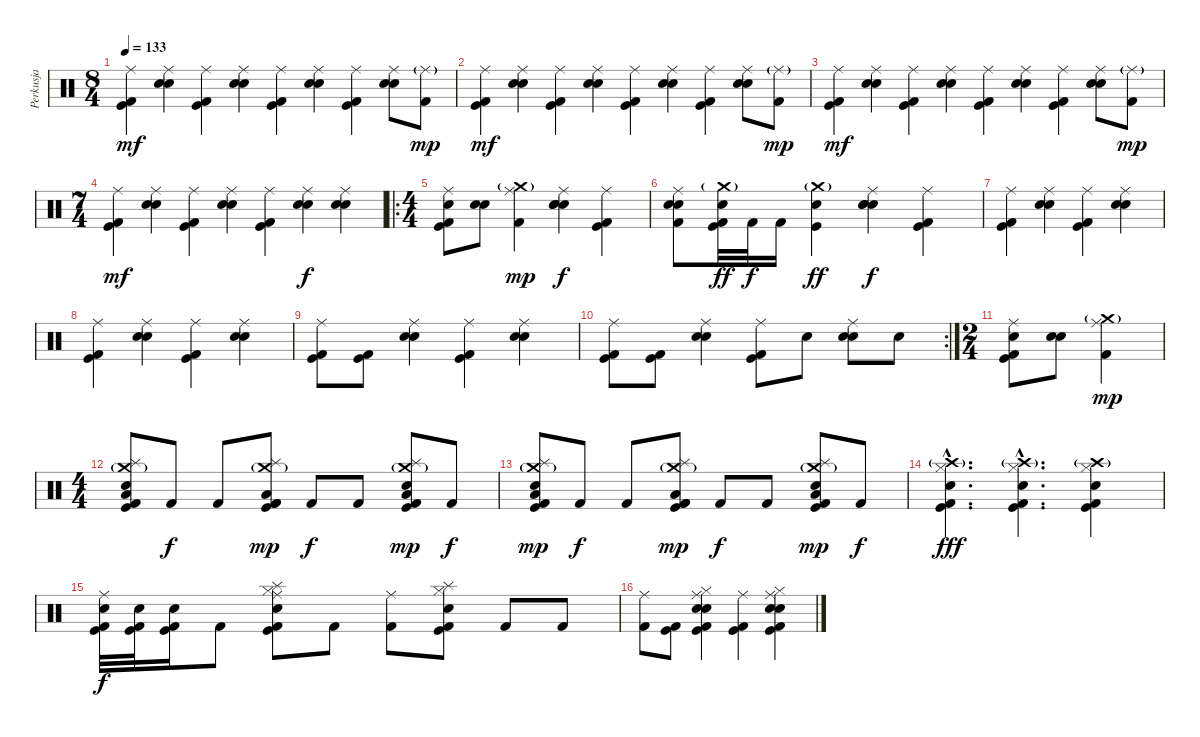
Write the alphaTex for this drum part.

\track ("Perkusja" "Perkusja") {instrument percussion}
\staff {score}
\articulation defaults
\ts (8 4)
\tempo 133
\clef neutral
\ks c
("Ride (middle)" "Kick (hit)" "Kick (hit) 2").4{dy mf} ("Ride (middle)" "Snare (hit) 2" "Electric Snare (hit)").4 ("Ride (middle)" "Kick (hit)" "Kick (hit) 2").4 ("Ride (middle)" "Snare (hit) 2" "Electric Snare (hit)").4 ("Ride (middle)" "Kick (hit)" "Kick (hit) 2").4 ("Ride (middle)" "Snare (hit) 2" "Electric Snare (hit)").4 ("Ride (middle)" "Kick (hit)" "Kick (hit) 2").4 ("Ride (middle)" "Snare (hit) 2" "Electric Snare (hit)").8 ("Ride (middle)"{g} "Kick (hit) 2").8{dy mp} |
("Ride (middle)" "Kick (hit)" "Kick (hit) 2").4{dy mf} ("Ride (middle)" "Snare (hit) 2" "Electric Snare (hit)").4 ("Ride (middle)" "Kick (hit)" "Kick (hit) 2").4 ("Ride (middle)" "Snare (hit) 2" "Electric Snare (hit)").4 ("Ride (middle)" "Kick (hit)" "Kick (hit) 2").4 ("Ride (middle)" "Snare (hit) 2" "Electric Snare (hit)").4 ("Ride (middle)" "Kick (hit)" "Kick (hit) 2").4 ("Ride (middle)" "Snare (hit) 2" "Electric Snare (hit)").8 ("Ride (middle)"{g} "Kick (hit) 2").8{dy mp} |
("Ride (middle)" "Kick (hit)" "Kick (hit) 2").4{dy mf} ("Ride (middle)" "Snare (hit) 2" "Electric Snare (hit)").4 ("Ride (middle)" "Kick (hit)" "Kick (hit) 2").4 ("Ride (middle)" "Snare (hit) 2" "Electric Snare (hit)").4 ("Ride (middle)" "Kick (hit)" "Kick (hit) 2").4 ("Ride (middle)" "Snare (hit) 2" "Electric Snare (hit)").4 ("Ride (middle)" "Kick (hit)" "Kick (hit) 2").4 ("Ride (middle)" "Snare (hit) 2" "Electric Snare (hit)").8 ("Ride (middle)"{g} "Kick (hit) 2").8{dy mp} |
\ts (7 4)
("Ride (middle)" "Kick (hit)" "Kick (hit) 2").4{dy mf} ("Ride (middle)" "Snare (hit) 2" "Electric Snare (hit)").4 ("Ride (middle)" "Kick (hit)" "Kick (hit) 2").4 ("Ride (middle)" "Snare (hit) 2" "Electric Snare (hit)").4 ("Ride (middle)" "Kick (hit)" "Kick (hit) 2").4 ("Ride (middle)" "Snare (hit) 2" "Electric Snare (hit)").4{dy f} ("Ride (middle)" "Snare (hit) 2" "Electric Snare (hit)").4 |
\ro
\ts (4 4)
("Ride (middle)" "Electric Snare (hit)" "Kick (hit) 2" "Kick (hit)").8 ("Snare (hit) 2" "Electric Snare (hit)").8 ("Ride (middle)" "Crash medium (hit)"{g} "Kick (hit) 2").4{dy mp} ("Ride (middle)" "Electric Snare (hit)" "Snare (hit) 2" "Electric Snare (hit)").4{dy f} ("Ride (middle)" "Kick (hit) 2" "Kick (hit)").4 |
("Ride (middle)" "Electric Snare (hit)" "Kick (hit) 2" "Electric Snare (hit)").8 ("Crash medium (hit)"{g} "Electric Snare (hit)" "Kick (hit)" "Kick (hit) 2").32{dy ff} "Kick (hit) 2".32{dy f} "Kick (hit) 2".16 ("Crash medium (hit)"{g} "Electric Snare (hit)" "Kick (hit)").4{dy ff} ("Ride (middle)" "Electric Snare (hit)" "Snare (hit) 2" "Electric Snare (hit)").4{dy f} ("Ride (middle)" "Kick (hit) 2" "Kick (hit)").4 |
("Ride (middle)" "Kick (hit)" "Kick (hit) 2").4 ("Ride (middle)" "Snare (hit) 2" "Electric Snare (hit)").4 ("Ride (middle)" "Kick (hit)" "Kick (hit) 2").4 ("Ride (middle)" "Snare (hit) 2" "Electric Snare (hit)").4 |
("Ride (middle)" "Kick (hit)" "Kick (hit) 2").4 ("Ride (middle)" "Snare (hit) 2" "Electric Snare (hit)").4 ("Ride (middle)" "Kick (hit)" "Kick (hit) 2").4 ("Ride (middle)" "Snare (hit) 2" "Electric Snare (hit)").4 |
("Ride (middle)" "Kick (hit)" "Kick (hit) 2").8 ("Kick (hit)" "Kick (hit) 2").8 ("Ride (middle)" "Snare (hit) 2" "Electric Snare (hit)").4 ("Ride (middle)" "Kick (hit)" "Kick (hit) 2").4 ("Ride (middle)" "Snare (hit) 2" "Electric Snare (hit)").4 |
\rc 2
("Ride (middle)" "Kick (hit)" "Kick (hit) 2").8 ("Kick (hit)" "Kick (hit) 2").8 ("Ride (middle)" "Snare (hit) 2" "Electric Snare (hit)").4 ("Ride (middle)" "Kick (hit)" "Kick (hit) 2").8 "Electric Snare (hit)".8 ("Ride (middle)" "Snare (hit) 2" "Electric Snare (hit)").8 "Electric Snare (hit)".8 |
\ts (2 4)
("Ride (middle)" "Electric Snare (hit)" "Kick (hit) 2" "Kick (hit)").8 ("Snare (hit) 2" "Electric Snare (hit)").8 ("Ride (middle)" "Crash medium (hit)"{g} "Kick (hit) 2").4{dy mp} |
\ts (4 4)
("Crash medium (hit)"{g} "Splash (hit)" "Low Tom (hit)" "Electric Snare (hit)" "Kick (hit)" "Kick (hit) 2").8 "Kick (hit) 2".8{dy f} "Kick (hit) 2".8 ("Crash medium (hit)"{g} "Splash (hit)" "Low Floor Tom (hit)" "Kick (hit) 2" "Kick (hit)" "Kick (hit) 2").8{dy mp} "Kick (hit) 2".8{dy f} "Kick (hit) 2".8 ("Crash medium (hit)"{g} "Splash (hit)" "Electric Snare (hit)" "Low Floor Tom (hit)" "Kick (hit)" "Kick (hit) 2").8{dy mp} "Kick (hit) 2".8{dy f} |
("Crash medium (hit)"{g} "Splash (hit)" "Low Tom (hit)" "Electric Snare (hit)" "Kick (hit)" "Kick (hit) 2").8{dy mp} "Kick (hit) 2".8{dy f} "Kick (hit) 2".8 ("Crash medium (hit)"{g} "Splash (hit)" "Low Floor Tom (hit)" "Kick (hit) 2" "Kick (hit)" "Kick (hit) 2").8{dy mp} "Kick (hit) 2".8{dy f} "Kick (hit) 2".8 ("Crash medium (hit)"{g} "Splash (hit)" "Electric Snare (hit)" "Low Floor Tom (hit)" "Kick (hit)" "Kick (hit) 2").8{dy mp} "Kick (hit) 2".8{dy f} |
("Crash high (hit)"{g hac} "Hi-Hat (closed)"{hac} "Kick (hit)"{hac} "Snare (hit) 2"{hac} "Kick (hit) 2"{hac}).4{d dy fff} ("Crash high (hit)"{g hac} "Hi-Hat (closed)"{hac} "Kick (hit)"{hac} "Snare (hit) 2"{hac} "Kick (hit) 2"{hac}).4{d} ("Crash high (hit)"{g} "Hi-Hat (closed)" "Kick (hit)" "Snare (hit) 2" "Kick (hit) 2").4 |
("Ride (middle)" "Electric Snare (hit)" "Kick (hit)" "Kick (hit) 2").32{dy f} ("Electric Snare (hit)" "Kick (hit)" "Kick (hit) 2").32 ("Electric Snare (hit)" "Kick (hit)" "Kick (hit) 2").16 "Kick (hit) 2".8 ("Ride (middle)" "Splash (hit)" "Hi-Hat (closed)" "Kick (hit)" "Snare (hit) 2" "Kick (hit) 2").8 "Kick (hit) 2".8 ("Ride (middle)" "Kick (hit) 2").8 ("Splash (hit)" "Hi-Hat (closed)" "Kick (hit)" "Snare (hit) 2" "Kick (hit) 2").8 "Kick (hit) 2".8 "Kick (hit) 2".8 |
("Ride (middle)" "Kick (hit) 2").8 ("Kick (hit)" "Kick (hit) 2").8 ("Ride (middle)" "Hi-Hat (closed)" "Electric Snare (hit)" "Kick (hit)" "Snare (hit) 2" "Kick (hit) 2").4 ("Ride (middle)" "Kick (hit) 2" "Kick (hit)").4 ("Ride (middle)" "Hi-Hat (closed)" "Electric Snare (hit)" "Kick (hit)" "Snare (hit) 2" "Kick (hit) 2").4
